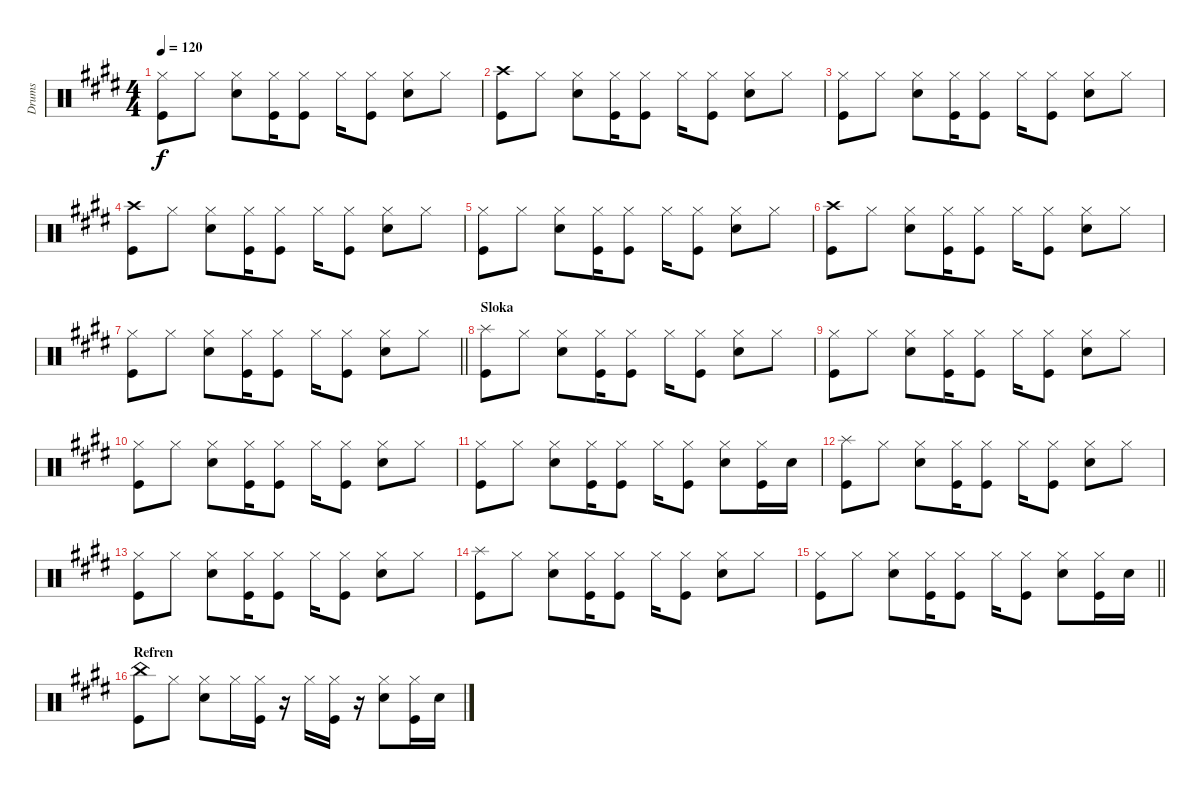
\track ("Drums" "Drums") {instrument percussion}
\staff {score}
\articulation defaults
\ts (4 4)
\tempo 120
\clef neutral
\ks c#minor
("Hi-Hat (closed)" "Kick (hit)").8{dy f} "Hi-Hat (closed)".8 ("Hi-Hat (closed)" "Snare (hit) 2").8 ("Hi-Hat (closed)" "Kick (hit)").16 ("Hi-Hat (closed)" "Kick (hit)").8 "Hi-Hat (closed)".16 ("Hi-Hat (closed)" "Kick (hit)").8 ("Hi-Hat (closed)" "Snare (hit) 2").8 "Hi-Hat (closed)".8 |
("Crash high (hit)" "Kick (hit)").8 "Hi-Hat (closed)".8 ("Hi-Hat (closed)" "Snare (hit) 2").8 ("Hi-Hat (closed)" "Kick (hit)").16 ("Hi-Hat (closed)" "Kick (hit)").8 "Hi-Hat (closed)".16 ("Hi-Hat (closed)" "Kick (hit)").8 ("Hi-Hat (closed)" "Snare (hit) 2").8 "Hi-Hat (closed)".8 |
("Hi-Hat (closed)" "Kick (hit)").8 "Hi-Hat (closed)".8 ("Hi-Hat (closed)" "Snare (hit) 2").8 ("Hi-Hat (closed)" "Kick (hit)").16 ("Hi-Hat (closed)" "Kick (hit)").8 "Hi-Hat (closed)".16 ("Hi-Hat (closed)" "Kick (hit)").8 ("Hi-Hat (closed)" "Snare (hit) 2").8 "Hi-Hat (closed)".8 |
\ks e
("Crash high (hit)" "Kick (hit)").8 "Hi-Hat (closed)".8 ("Hi-Hat (closed)" "Snare (hit) 2").8 ("Hi-Hat (closed)" "Kick (hit)").16 ("Hi-Hat (closed)" "Kick (hit)").8 "Hi-Hat (closed)".16 ("Hi-Hat (closed)" "Kick (hit)").8 ("Hi-Hat (closed)" "Snare (hit) 2").8 "Hi-Hat (closed)".8 |
\ks c#minor
("Hi-Hat (closed)" "Kick (hit)").8 "Hi-Hat (closed)".8 ("Hi-Hat (closed)" "Snare (hit) 2").8 ("Hi-Hat (closed)" "Kick (hit)").16 ("Hi-Hat (closed)" "Kick (hit)").8 "Hi-Hat (closed)".16 ("Hi-Hat (closed)" "Kick (hit)").8 ("Hi-Hat (closed)" "Snare (hit) 2").8 "Hi-Hat (closed)".8 |
("Crash high (hit)" "Kick (hit)").8 "Hi-Hat (closed)".8 ("Hi-Hat (closed)" "Snare (hit) 2").8 ("Hi-Hat (closed)" "Kick (hit)").16 ("Hi-Hat (closed)" "Kick (hit)").8 "Hi-Hat (closed)".16 ("Hi-Hat (closed)" "Kick (hit)").8 ("Hi-Hat (closed)" "Snare (hit) 2").8 "Hi-Hat (closed)".8 |
\barLineRight lightlight
("Hi-Hat (closed)" "Kick (hit)").8 "Hi-Hat (closed)".8 ("Hi-Hat (closed)" "Snare (hit) 2").8 ("Hi-Hat (closed)" "Kick (hit)").16 ("Hi-Hat (closed)" "Kick (hit)").8 "Hi-Hat (closed)".16 ("Hi-Hat (closed)" "Kick (hit)").8 ("Hi-Hat (closed)" "Snare (hit) 2").8 "Hi-Hat (closed)".8 |
\section ("" "Sloka")
\ks e
("Splash (hit)" "Kick (hit)").8 "Hi-Hat (closed)".8 ("Hi-Hat (closed)" "Snare (hit) 2").8 ("Hi-Hat (closed)" "Kick (hit)").16 ("Hi-Hat (closed)" "Kick (hit)").8 "Hi-Hat (closed)".16 ("Hi-Hat (closed)" "Kick (hit)").8 ("Hi-Hat (closed)" "Snare (hit) 2").8 "Hi-Hat (closed)".8 |
\ks c#minor
("Hi-Hat (closed)" "Kick (hit)").8 "Hi-Hat (closed)".8 ("Hi-Hat (closed)" "Snare (hit) 2").8 ("Hi-Hat (closed)" "Kick (hit)").16 ("Hi-Hat (closed)" "Kick (hit)").8 "Hi-Hat (closed)".16 ("Hi-Hat (closed)" "Kick (hit)").8 ("Hi-Hat (closed)" "Snare (hit) 2").8 "Hi-Hat (closed)".8 |
\ks e
("Hi-Hat (closed)" "Kick (hit)").8 "Hi-Hat (closed)".8 ("Hi-Hat (closed)" "Snare (hit) 2").8 ("Hi-Hat (closed)" "Kick (hit)").16 ("Hi-Hat (closed)" "Kick (hit)").8 "Hi-Hat (closed)".16 ("Hi-Hat (closed)" "Kick (hit)").8 ("Hi-Hat (closed)" "Snare (hit) 2").8 "Hi-Hat (closed)".8 |
\ks c#minor
("Hi-Hat (closed)" "Kick (hit)").8 "Hi-Hat (closed)".8 ("Hi-Hat (closed)" "Snare (hit) 2").8 ("Hi-Hat (closed)" "Kick (hit)").16 ("Hi-Hat (closed)" "Kick (hit)").8 "Hi-Hat (closed)".16 ("Hi-Hat (closed)" "Kick (hit)").8 ("Hi-Hat (closed)" "Snare (hit) 2").8 ("Hi-Hat (closed)" "Kick (hit)").16 "Snare (hit) 2".16 |
\ks e
("Splash (hit)" "Kick (hit)").8 "Hi-Hat (closed)".8 ("Hi-Hat (closed)" "Snare (hit) 2").8 ("Hi-Hat (closed)" "Kick (hit)").16 ("Hi-Hat (closed)" "Kick (hit)").8 "Hi-Hat (closed)".16 ("Hi-Hat (closed)" "Kick (hit)").8 ("Hi-Hat (closed)" "Snare (hit) 2").8 "Hi-Hat (closed)".8 |
\ks c#minor
("Hi-Hat (closed)" "Kick (hit)").8 "Hi-Hat (closed)".8 ("Hi-Hat (closed)" "Snare (hit) 2").8 ("Hi-Hat (closed)" "Kick (hit)").16 ("Hi-Hat (closed)" "Kick (hit)").8 "Hi-Hat (closed)".16 ("Hi-Hat (closed)" "Kick (hit)").8 ("Hi-Hat (closed)" "Snare (hit) 2").8 "Hi-Hat (closed)".8 |
\ks e
("Splash (hit)" "Kick (hit)").8 "Hi-Hat (closed)".8 ("Hi-Hat (closed)" "Snare (hit) 2").8 ("Hi-Hat (closed)" "Kick (hit)").16 ("Hi-Hat (closed)" "Kick (hit)").8 "Hi-Hat (closed)".16 ("Hi-Hat (closed)" "Kick (hit)").8 ("Hi-Hat (closed)" "Snare (hit) 2").8 "Hi-Hat (closed)".8 |
\barLineRight lightlight
\ks c#minor
("Hi-Hat (closed)" "Kick (hit)").8 "Hi-Hat (closed)".8 ("Hi-Hat (closed)" "Snare (hit) 2").8 ("Hi-Hat (closed)" "Kick (hit)").16 ("Hi-Hat (closed)" "Kick (hit)").8 "Hi-Hat (closed)".16 ("Hi-Hat (closed)" "Kick (hit)").8 ("Hi-Hat (closed)" "Snare (hit) 2").8 ("Hi-Hat (closed)" "Kick (hit)").16 "Snare (hit) 2".16 |
\section ("" "Refren")
\ks e
("China (hit)" "Kick (hit)").8 "Hi-Hat (closed)".8 ("Hi-Hat (closed)" "Snare (hit) 2").8 "Hi-Hat (closed)".16 ("Hi-Hat (closed)" "Kick (hit)").16 r.16 "Hi-Hat (closed)".16 ("Hi-Hat (closed)" "Kick (hit)").16 r.16 ("Hi-Hat (closed)" "Snare (hit) 2").8 ("Hi-Hat (closed)" "Kick (hit)").16 "Snare (hit) 2".16
